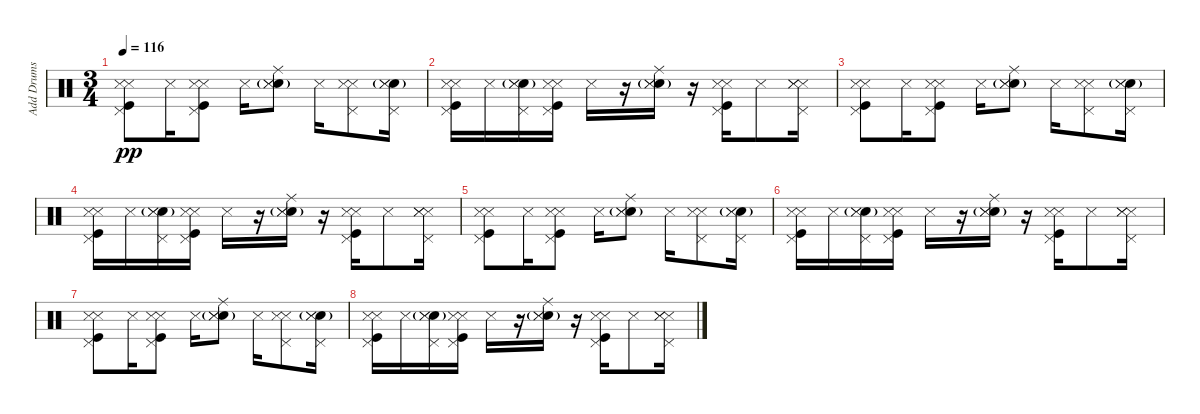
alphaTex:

\track ("Add Drums" "Add Drums") {instrument percussion}
\staff {score}
\articulation defaults
\ts (3 4)
\tempo 116
\clef neutral
\ks c
("Metronome (hit)" "Kick (hit)" "Pedal Hi-Hat (hit)" "Snare (side stick) 3").8{dy pp} "Snare (side stick) 3".16 ("Metronome (hit)" "Kick (hit)" "Pedal Hi-Hat (hit)" "Snare (side stick) 3").8 "Snare (side stick) 3".16 ("Electric Snare (hit)"{g} "Metronome (hit)" "Ride (middle)" "Snare (side stick) 3").8 "Snare (side stick) 3".16 ("Metronome (hit)" "Pedal Hi-Hat (hit)" "Snare (side stick) 3").8 ("Electric Snare (hit)"{g} "Metronome (hit)" "Pedal Hi-Hat (hit)" "Snare (side stick) 3").16 |
("Metronome (hit)" "Kick (hit)" "Pedal Hi-Hat (hit)" "Snare (side stick) 3").16 "Snare (side stick) 3".16 ("Electric Snare (hit)"{g} "Metronome (hit)" "Pedal Hi-Hat (hit)" "Snare (side stick) 3").16 ("Kick (hit)" "Metronome (hit)" "Pedal Hi-Hat (hit)" "Snare (side stick) 3").16 "Snare (side stick) 3".16 r.16 ("Electric Snare (hit)"{g} "Metronome (hit)" "Ride (middle)" "Snare (side stick) 3").16 r.16 ("Kick (hit)" "Metronome (hit)" "Pedal Hi-Hat (hit)" "Snare (side stick) 3").16 "Snare (side stick) 3".8 ("Metronome (hit)" "Metronome (hit)" "Pedal Hi-Hat (hit)" "Snare (side stick) 3").16 |
("Metronome (hit)" "Kick (hit)" "Pedal Hi-Hat (hit)" "Snare (side stick) 3").8 "Snare (side stick) 3".16 ("Metronome (hit)" "Kick (hit)" "Pedal Hi-Hat (hit)" "Snare (side stick) 3").8 "Snare (side stick) 3".16 ("Electric Snare (hit)"{g} "Metronome (hit)" "Ride (middle)" "Snare (side stick) 3").8 "Snare (side stick) 3".16 ("Metronome (hit)" "Pedal Hi-Hat (hit)" "Snare (side stick) 3").8 ("Electric Snare (hit)"{g} "Metronome (hit)" "Pedal Hi-Hat (hit)" "Snare (side stick) 3").16 |
("Metronome (hit)" "Kick (hit)" "Pedal Hi-Hat (hit)" "Snare (side stick) 3").16 "Snare (side stick) 3".16 ("Electric Snare (hit)"{g} "Metronome (hit)" "Pedal Hi-Hat (hit)" "Snare (side stick) 3").16 ("Kick (hit)" "Metronome (hit)" "Pedal Hi-Hat (hit)" "Snare (side stick) 3").16 "Snare (side stick) 3".16 r.16 ("Electric Snare (hit)"{g} "Metronome (hit)" "Ride (middle)" "Snare (side stick) 3").16 r.16 ("Kick (hit)" "Metronome (hit)" "Pedal Hi-Hat (hit)" "Snare (side stick) 3").16 "Snare (side stick) 3".8 ("Metronome (hit)" "Metronome (hit)" "Pedal Hi-Hat (hit)" "Snare (side stick) 3").16 |
("Metronome (hit)" "Kick (hit)" "Pedal Hi-Hat (hit)" "Snare (side stick) 3").8 "Snare (side stick) 3".16 ("Metronome (hit)" "Kick (hit)" "Pedal Hi-Hat (hit)" "Snare (side stick) 3").8 "Snare (side stick) 3".16 ("Electric Snare (hit)"{g} "Metronome (hit)" "Ride (middle)" "Snare (side stick) 3").8 "Snare (side stick) 3".16 ("Metronome (hit)" "Pedal Hi-Hat (hit)" "Snare (side stick) 3").8 ("Electric Snare (hit)"{g} "Metronome (hit)" "Pedal Hi-Hat (hit)" "Snare (side stick) 3").16 |
("Metronome (hit)" "Kick (hit)" "Pedal Hi-Hat (hit)" "Snare (side stick) 3").16 "Snare (side stick) 3".16 ("Electric Snare (hit)"{g} "Metronome (hit)" "Pedal Hi-Hat (hit)" "Snare (side stick) 3").16 ("Kick (hit)" "Metronome (hit)" "Pedal Hi-Hat (hit)" "Snare (side stick) 3").16 "Snare (side stick) 3".16 r.16 ("Electric Snare (hit)"{g} "Metronome (hit)" "Ride (middle)" "Snare (side stick) 3").16 r.16 ("Kick (hit)" "Metronome (hit)" "Pedal Hi-Hat (hit)" "Snare (side stick) 3").16 "Snare (side stick) 3".8 ("Metronome (hit)" "Metronome (hit)" "Pedal Hi-Hat (hit)" "Snare (side stick) 3").16 |
("Metronome (hit)" "Kick (hit)" "Pedal Hi-Hat (hit)" "Snare (side stick) 3").8 "Snare (side stick) 3".16 ("Metronome (hit)" "Kick (hit)" "Pedal Hi-Hat (hit)" "Snare (side stick) 3").8 "Snare (side stick) 3".16 ("Electric Snare (hit)"{g} "Metronome (hit)" "Ride (middle)" "Snare (side stick) 3").8 "Snare (side stick) 3".16 ("Metronome (hit)" "Pedal Hi-Hat (hit)" "Snare (side stick) 3").8 ("Electric Snare (hit)"{g} "Metronome (hit)" "Pedal Hi-Hat (hit)" "Snare (side stick) 3").16 |
("Metronome (hit)" "Kick (hit)" "Pedal Hi-Hat (hit)" "Snare (side stick) 3").16 "Snare (side stick) 3".16 ("Electric Snare (hit)"{g} "Metronome (hit)" "Pedal Hi-Hat (hit)" "Snare (side stick) 3").16 ("Kick (hit)" "Metronome (hit)" "Pedal Hi-Hat (hit)" "Snare (side stick) 3").16 "Snare (side stick) 3".16 r.16 ("Electric Snare (hit)"{g} "Metronome (hit)" "Ride (middle)" "Snare (side stick) 3").16 r.16 ("Kick (hit)" "Metronome (hit)" "Pedal Hi-Hat (hit)" "Snare (side stick) 3").16 "Snare (side stick) 3".8 ("Metronome (hit)" "Metronome (hit)" "Pedal Hi-Hat (hit)" "Snare (side stick) 3").16
